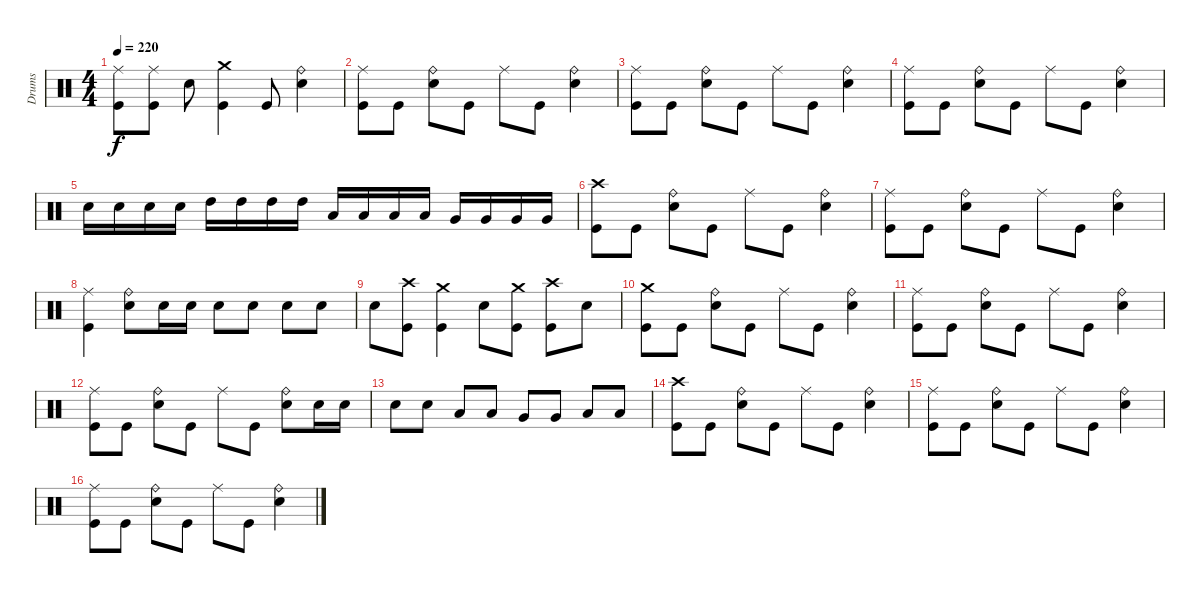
\track ("Drums" "Drums") {instrument percussion}
\staff {score}
\articulation defaults
\ts (4 4)
\tempo 220
\clef neutral
\ks c
("Ride (middle)" "Kick (hit)").8{dy f} ("Ride (middle)" "Kick (hit)").8 "Snare (hit) 2".8 ("Crash medium (hit)" "Kick (hit)").4 "Kick (hit)".8 ("Ride (bell)" "Snare (hit) 2").4 |
("Ride (middle)" "Kick (hit)").8 "Kick (hit)".8 ("Ride (bell)" "Snare (hit) 2").8 "Kick (hit)".8 "Ride (middle)".8 "Kick (hit)".8 ("Ride (bell)" "Snare (hit) 2").4 |
("Ride (middle)" "Kick (hit)").8 "Kick (hit)".8 ("Ride (bell)" "Snare (hit) 2").8 "Kick (hit)".8 "Ride (middle)".8 "Kick (hit)".8 ("Ride (bell)" "Snare (hit) 2").4 |
("Ride (middle)" "Kick (hit)").8 "Kick (hit)".8 ("Ride (bell)" "Snare (hit) 2").8 "Kick (hit)".8 "Ride (middle)".8 "Kick (hit)".8 ("Ride (bell)" "Snare (hit) 2").4 |
"Snare (hit) 2".16 "Snare (hit) 2".16 "Snare (hit) 2".16 "Snare (hit) 2".16 "High Tom (hit)".16 "High Tom (hit)".16 "High Tom (hit)".16 "High Tom (hit)".16 "Low Tom (hit)".16 "Low Tom (hit)".16 "Low Tom (hit)".16 "Low Tom (hit)".16 "Very Low Tom (hit)".16 "Very Low Tom (hit)".16 "Very Low Tom (hit)".16 "Very Low Tom (hit)".16 |
("Crash high (hit)" "Kick (hit)").8 "Kick (hit)".8 ("Ride (bell)" "Snare (hit) 2").8 "Kick (hit)".8 "Ride (middle)".8 "Kick (hit)".8 ("Ride (bell)" "Snare (hit) 2").4 |
("Ride (middle)" "Kick (hit)").8 "Kick (hit)".8 ("Ride (bell)" "Snare (hit) 2").8 "Kick (hit)".8 "Ride (middle)".8 "Kick (hit)".8 ("Ride (bell)" "Snare (hit) 2").4 |
("Ride (middle)" "Kick (hit)").4 ("Ride (bell)" "Snare (hit) 2").8 "Snare (hit) 2".16 "Snare (hit) 2".16 "Snare (hit) 2".8 "Snare (hit) 2".8 "Snare (hit) 2".8 "Snare (hit) 2".8 |
"Snare (hit) 2".8 ("Crash high (hit)" "Kick (hit)").8 ("Crash medium (hit)" "Kick (hit)").4 "Snare (hit) 2".8 ("Crash medium (hit)" "Kick (hit)").8 ("Crash high (hit)" "Kick (hit)").8 "Snare (hit) 2".8 |
("Crash medium (hit)" "Kick (hit)").8 "Kick (hit)".8 ("Ride (bell)" "Snare (hit) 2").8 "Kick (hit)".8 "Ride (middle)".8 "Kick (hit)".8 ("Ride (bell)" "Snare (hit) 2").4 |
("Ride (middle)" "Kick (hit)").8 "Kick (hit)".8 ("Ride (bell)" "Snare (hit) 2").8 "Kick (hit)".8 "Ride (middle)".8 "Kick (hit)".8 ("Ride (bell)" "Snare (hit) 2").4 |
("Ride (middle)" "Kick (hit)").8 "Kick (hit)".8 ("Ride (bell)" "Snare (hit) 2").8 "Kick (hit)".8 "Ride (middle)".8 "Kick (hit)".8 ("Ride (bell)" "Snare (hit) 2").8 "Snare (hit) 2".16 "Snare (hit) 2".16 |
"Snare (hit) 2".8 "Snare (hit) 2".8 "Low Tom (hit)".8 "Low Tom (hit)".8 "Very Low Tom (hit)".8 "Very Low Tom (hit)".8 "Low Floor Tom (hit)".8 "Low Floor Tom (hit)".8 |
("Crash high (hit)" "Kick (hit)").8 "Kick (hit)".8 ("Ride (bell)" "Snare (hit) 2").8 "Kick (hit)".8 "Ride (middle)".8 "Kick (hit)".8 ("Ride (bell)" "Snare (hit) 2").4 |
("Ride (middle)" "Kick (hit)").8 "Kick (hit)".8 ("Ride (bell)" "Snare (hit) 2").8 "Kick (hit)".8 "Ride (middle)".8 "Kick (hit)".8 ("Ride (bell)" "Snare (hit) 2").4 |
("Ride (middle)" "Kick (hit)").8 "Kick (hit)".8 ("Ride (bell)" "Snare (hit) 2").8 "Kick (hit)".8 "Ride (middle)".8 "Kick (hit)".8 ("Ride (bell)" "Snare (hit) 2").4
